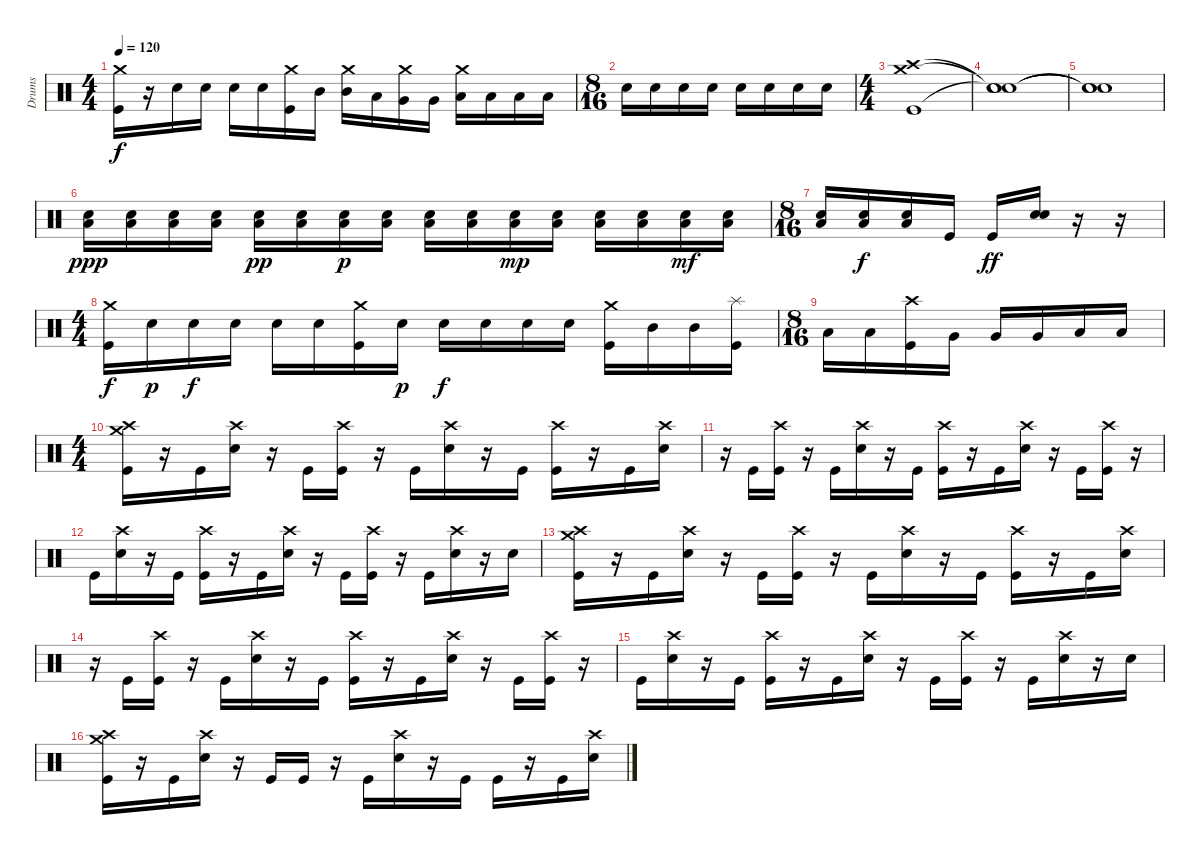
\track ("Drums" "Drums") {instrument percussion}
\staff {score}
\articulation defaults
\ts (4 4)
\tempo 120
\clef neutral
\ks c
("Crash medium (hit)" "Kick (hit)").16{dy f} r.16 "Electric Snare (hit)".16 "Electric Snare (hit)".16 "Electric Snare (hit)".16 "Electric Snare (hit)".16 ("Kick (hit)" "Crash medium (hit)").16 "Mid Tom (hit)".16 ("Crash medium (hit)" "Mid Tom (hit)").16 "Low Tom (hit)".16 ("Crash medium (hit)" "Very Low Tom (hit)").16 "Very Low Tom (hit)".16 ("Crash medium (hit)" "Low Floor Tom (hit)").16 "Low Floor Tom (hit)".16 "Low Floor Tom (hit)".16 "Low Floor Tom (hit)".16 |
\ts (8 16)
"Electric Snare (hit)".16 "Electric Snare (hit)".16 "Electric Snare (hit)".16 "Electric Snare (hit)".16 "Electric Snare (hit)".16 "Electric Snare (hit)".16 "Electric Snare (hit)".16 "Electric Snare (hit)".16 |
\ts (4 4)
("Crash high (hit)" "Crash medium (hit)" "Kick (hit)").1 |
("Snare (hit)"{t} "Snare (hit)"{t} "Snare (hit)"{t}).1 |
("Snare (hit)"{t} "Snare (hit)"{t} "Snare (hit)"{t}).1 |
("Low Floor Tom (hit)" "Electric Snare (hit)").16{dy ppp} ("Low Floor Tom (hit)" "Electric Snare (hit)").16 ("Low Floor Tom (hit)" "Electric Snare (hit)").16 ("Low Floor Tom (hit)" "Electric Snare (hit)").16 ("Low Floor Tom (hit)" "Electric Snare (hit)").16{dy pp} ("Low Floor Tom (hit)" "Electric Snare (hit)").16 ("Low Floor Tom (hit)" "Electric Snare (hit)").16{dy p} ("Low Floor Tom (hit)" "Electric Snare (hit)").16 ("Low Floor Tom (hit)" "Electric Snare (hit)").16 ("Low Floor Tom (hit)" "Electric Snare (hit)").16 ("Low Floor Tom (hit)" "Electric Snare (hit)").16{dy mp} ("Low Floor Tom (hit)" "Electric Snare (hit)").16 ("Low Floor Tom (hit)" "Electric Snare (hit)").16 ("Low Floor Tom (hit)" "Electric Snare (hit)").16 ("Low Floor Tom (hit)" "Electric Snare (hit)").16{dy mf} ("Low Floor Tom (hit)" "Electric Snare (hit)").16 |
\ts (8 16)
("Electric Snare (hit)" "Low Floor Tom (hit)").16 ("Electric Snare (hit)" "Low Floor Tom (hit)").16{dy f} ("Electric Snare (hit)" "Low Floor Tom (hit)").16 "Kick (hit)".16 "Kick (hit)".16{dy ff} ("Electric Snare (hit)" "Snare (hit) 2").16 r.16 r.16 |
\ts (4 4)
("Kick (hit)" "Crash medium (hit)").16{dy f} "Electric Snare (hit)".16{dy p} "Electric Snare (hit)".16{dy f} "Electric Snare (hit)".16 "Electric Snare (hit)".16 "Electric Snare (hit)".16 ("Crash medium (hit)" "Kick (hit)").16 "Electric Snare (hit)".16{dy p} "Electric Snare (hit)".16{dy f} "Electric Snare (hit)".16 "Electric Snare (hit)".16 "Electric Snare (hit)".16 ("Crash medium (hit)" "Kick (hit)").16 "Mid Tom (hit)".16 "Mid Tom (hit)".16 ("Splash (hit)" "Kick (hit)").16 |
\ts (8 16)
"Low Tom (hit)".16 "Low Tom (hit)".16 ("Crash high (hit)" "Kick (hit)").16 "Very Low Tom (hit)".16 "Very Low Tom (hit)".16 "Very Low Tom (hit)".16 "Low Floor Tom (hit)".16 "Low Floor Tom (hit)".16 |
\ts (4 4)
("Crash high (hit)" "Crash medium (hit)" "Kick (hit)").16 r.16 "Kick (hit)".16 ("Crash high (hit)" "Electric Snare (hit)").16 r.16 "Kick (hit)".16 ("Crash high (hit)" "Kick (hit)").16 r.16 "Kick (hit)".16 ("Crash high (hit)" "Electric Snare (hit)").16 r.16 "Kick (hit)".16 ("Crash high (hit)" "Kick (hit)").16 r.16 "Kick (hit)".16 ("Crash high (hit)" "Electric Snare (hit)").16 |
r.16 "Kick (hit)".16 ("Crash high (hit)" "Kick (hit)").16 r.16 "Kick (hit)".16 ("Crash high (hit)" "Electric Snare (hit)").16 r.16 "Kick (hit)".16 ("Crash high (hit)" "Kick (hit)").16 r.16 "Kick (hit)".16 ("Crash high (hit)" "Electric Snare (hit)").16 r.16 "Kick (hit)".16 ("Crash high (hit)" "Kick (hit)").16 r.16 |
"Kick (hit)".16 ("Crash high (hit)" "Electric Snare (hit)").16 r.16 "Kick (hit)".16 ("Crash high (hit)" "Kick (hit)").16 r.16 "Kick (hit)".16 ("Crash high (hit)" "Electric Snare (hit)").16 r.16 "Kick (hit)".16 ("Crash high (hit)" "Kick (hit)").16 r.16 "Kick (hit)".16 ("Crash high (hit)" "Electric Snare (hit)").16 r.16 "Electric Snare (hit)".16 |
("Crash high (hit)" "Crash medium (hit)" "Kick (hit)").16 r.16 "Kick (hit)".16 ("Crash high (hit)" "Electric Snare (hit)").16 r.16 "Kick (hit)".16 ("Crash high (hit)" "Kick (hit)").16 r.16 "Kick (hit)".16 ("Crash high (hit)" "Electric Snare (hit)").16 r.16 "Kick (hit)".16 ("Crash high (hit)" "Kick (hit)").16 r.16 "Kick (hit)".16 ("Crash high (hit)" "Electric Snare (hit)").16 |
r.16 "Kick (hit)".16 ("Crash high (hit)" "Kick (hit)").16 r.16 "Kick (hit)".16 ("Crash high (hit)" "Electric Snare (hit)").16 r.16 "Kick (hit)".16 ("Crash high (hit)" "Kick (hit)").16 r.16 "Kick (hit)".16 ("Crash high (hit)" "Electric Snare (hit)").16 r.16 "Kick (hit)".16 ("Crash high (hit)" "Kick (hit)").16 r.16 |
"Kick (hit)".16 ("Crash high (hit)" "Electric Snare (hit)").16 r.16 "Kick (hit)".16 ("Crash high (hit)" "Kick (hit)").16 r.16 "Kick (hit)".16 ("Crash high (hit)" "Electric Snare (hit)").16 r.16 "Kick (hit)".16 ("Crash high (hit)" "Kick (hit)").16 r.16 "Kick (hit)".16 ("Crash high (hit)" "Electric Snare (hit)").16 r.16 "Electric Snare (hit)".16 |
("Crash high (hit)" "Crash medium (hit)" "Kick (hit)").16 r.16 "Kick (hit)".16 ("Crash high (hit)" "Electric Snare (hit)").16 r.16 "Kick (hit)".16 "Kick (hit)".16 r.16 "Kick (hit)".16 ("Crash high (hit)" "Electric Snare (hit)").16 r.16 "Kick (hit)".16 "Kick (hit)".16 r.16 "Kick (hit)".16 ("Crash high (hit)" "Electric Snare (hit)").16
